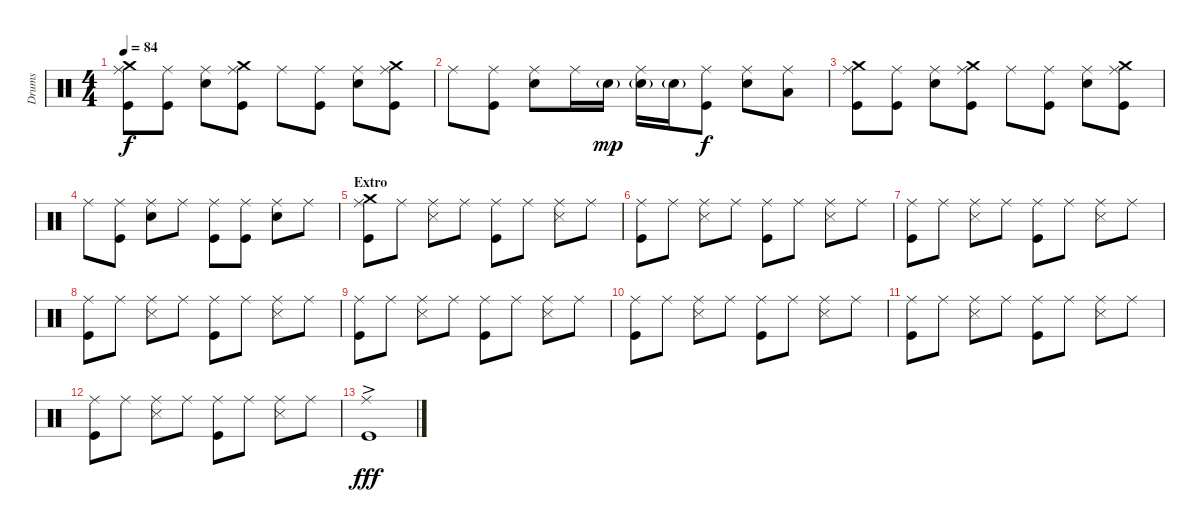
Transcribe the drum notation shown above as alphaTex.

\track ("Drums" "Drums") {instrument percussion}
\staff {score}
\articulation defaults
\ts (4 4)
\tempo 84
\clef neutral
\ks c
("Ride (middle)" "Crash medium (hit)" "Kick (hit)").8{dy f} ("Ride (middle)" "Kick (hit)").8 ("Ride (middle)" "Snare (hit) 2").8 ("Ride (middle)" "Crash medium (hit)" "Kick (hit)").8 "Ride (middle)".8 ("Ride (middle)" "Kick (hit)").8 ("Ride (middle)" "Snare (hit) 2").8 ("Ride (middle)" "Crash medium (hit)" "Kick (hit)").8 |
"Ride (middle)".8 ("Ride (middle)" "Kick (hit)").8 ("Ride (middle)" "Snare (hit) 2").8 "Ride (middle)".16 "Snare (hit) 2"{g}.16{dy mp} ("Ride (middle)" "Snare (hit) 2"{g}).16 "Snare (hit) 2"{g}.16 ("Ride (middle)" "Kick (hit)").8{dy f} ("Ride (middle)" "Snare (hit) 2").8 ("Ride (middle)" "Low Tom (hit)").8 |
("Ride (middle)" "Crash medium (hit)" "Kick (hit)").8 ("Ride (middle)" "Kick (hit)").8 ("Ride (middle)" "Snare (hit) 2").8 ("Ride (middle)" "Crash medium (hit)" "Kick (hit)").8 "Ride (middle)".8 ("Ride (middle)" "Kick (hit)").8 ("Ride (middle)" "Snare (hit) 2").8 ("Ride (middle)" "Crash medium (hit)" "Kick (hit)").8 |
"Ride (middle)".8 ("Ride (middle)" "Kick (hit)").8 ("Ride (middle)" "Snare (hit) 2").8 "Ride (middle)".8 ("Ride (middle)" "Kick (hit)").8 ("Ride (middle)" "Kick (hit)").8 ("Ride (middle)" "Snare (hit) 2").8 "Ride (middle)".8 |
\section ("" "Extro")
("Ride (middle)" "Crash medium (hit)" "Kick (hit)").8 "Ride (middle)".8 ("Ride (middle)" "Snare (side stick) 3").8 "Ride (middle)".8 ("Ride (middle)" "Kick (hit)").8 "Ride (middle)".8 ("Ride (middle)" "Snare (side stick) 3").8 "Ride (middle)".8 |
("Ride (middle)" "Kick (hit)").8 "Ride (middle)".8 ("Ride (middle)" "Snare (side stick) 3").8 "Ride (middle)".8 ("Ride (middle)" "Kick (hit)").8 "Ride (middle)".8 ("Ride (middle)" "Snare (side stick) 3").8 "Ride (middle)".8 |
("Ride (middle)" "Kick (hit)").8 "Ride (middle)".8 ("Ride (middle)" "Snare (side stick) 3").8 "Ride (middle)".8 ("Ride (middle)" "Kick (hit)").8 "Ride (middle)".8 ("Ride (middle)" "Snare (side stick) 3").8 "Ride (middle)".8 |
("Ride (middle)" "Kick (hit)").8 "Ride (middle)".8 ("Ride (middle)" "Snare (side stick) 3").8 "Ride (middle)".8 ("Ride (middle)" "Kick (hit)").8 "Ride (middle)".8 ("Ride (middle)" "Snare (side stick) 3").8 "Ride (middle)".8 |
("Ride (middle)" "Kick (hit)").8 "Ride (middle)".8 ("Ride (middle)" "Snare (side stick) 3").8 "Ride (middle)".8 ("Ride (middle)" "Kick (hit)").8 "Ride (middle)".8 ("Ride (middle)" "Snare (side stick) 3").8 "Ride (middle)".8 |
("Ride (middle)" "Kick (hit)").8 "Ride (middle)".8 ("Ride (middle)" "Snare (side stick) 3").8 "Ride (middle)".8 ("Ride (middle)" "Kick (hit)").8 "Ride (middle)".8 ("Ride (middle)" "Snare (side stick) 3").8 "Ride (middle)".8 |
("Ride (middle)" "Kick (hit)").8 "Ride (middle)".8 ("Ride (middle)" "Snare (side stick) 3").8 "Ride (middle)".8 ("Ride (middle)" "Kick (hit)").8 "Ride (middle)".8 ("Ride (middle)" "Snare (side stick) 3").8 "Ride (middle)".8 |
("Ride (middle)" "Kick (hit)").8 "Ride (middle)".8 ("Ride (middle)" "Snare (side stick) 3").8 "Ride (middle)".8 ("Ride (middle)" "Kick (hit)").8 "Ride (middle)".8 ("Ride (middle)" "Snare (side stick) 3").8 "Ride (middle)".8 |
("Ride (middle)"{ac} "Kick (hit)").1{dy fff}
